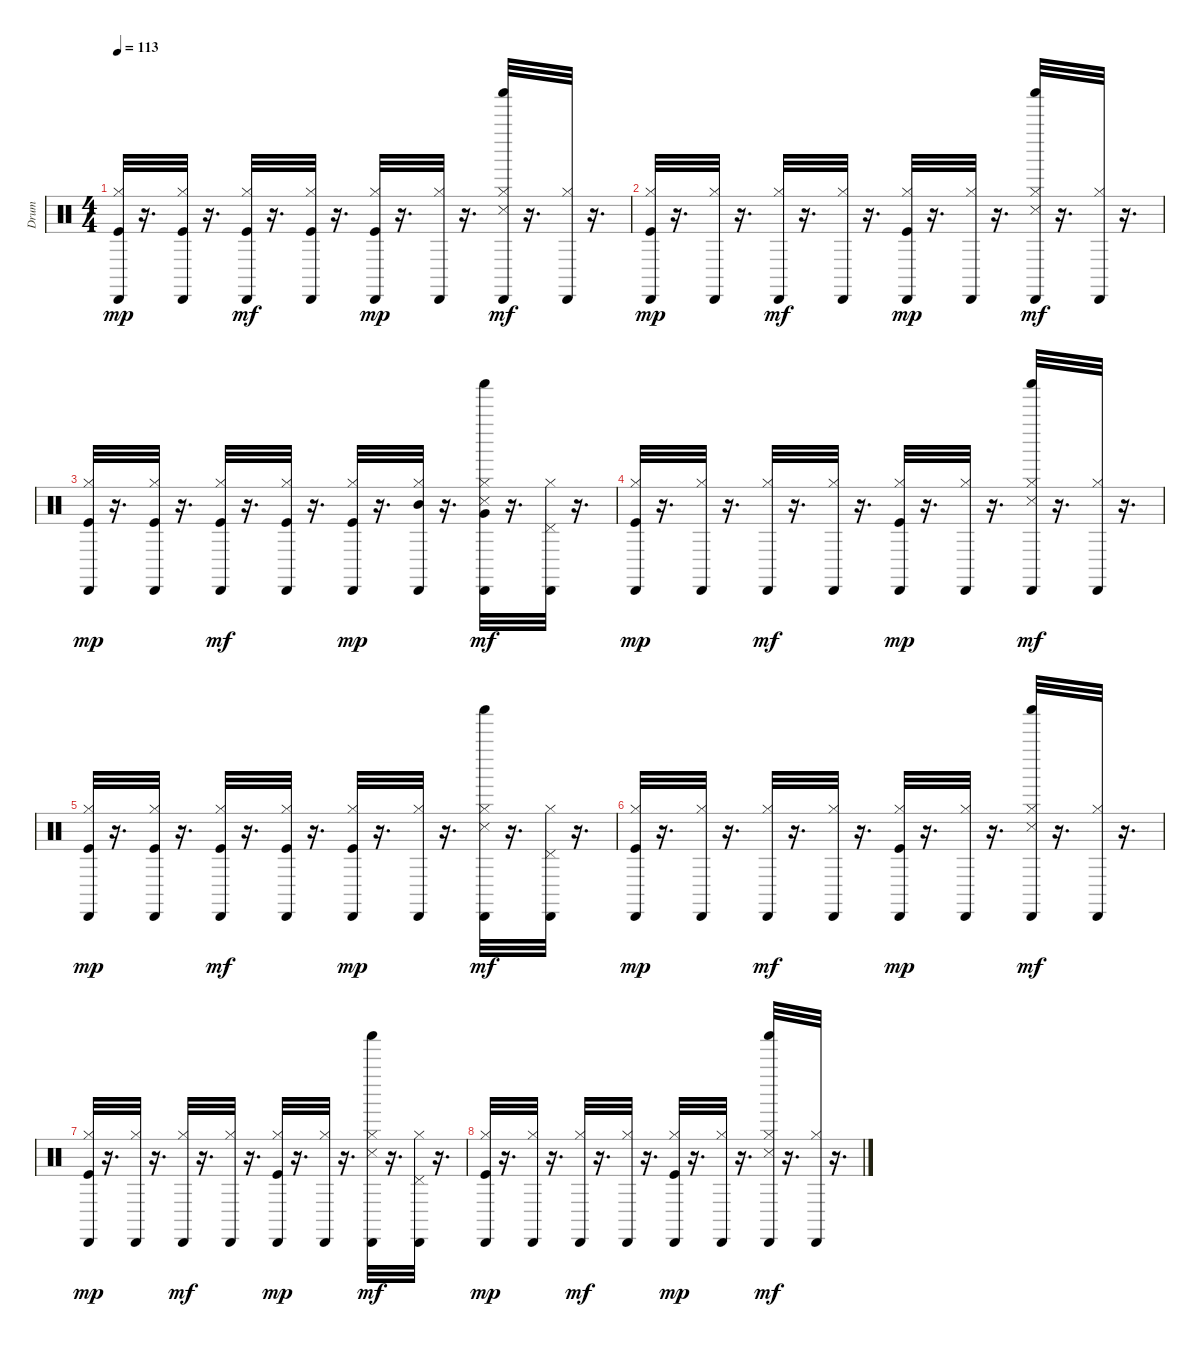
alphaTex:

\track ("Drum" "Drum") {instrument percussion}
\staff {score}
\articulation defaults
\ts (4 4)
\tempo 113
\clef neutral
\ks c
("Hi-Hat (closed)" "Kick (hit)" "Cabasa (hit)").32{dy mp} r.16{d} ("Hi-Hat (closed)" "Kick (hit)" "Cabasa (hit)").32 r.16{d} ("Hi-Hat (closed)" "Kick (hit)" "Cabasa (hit)").32{dy mf} r.16{d} ("Hi-Hat (closed)" "Kick (hit)" "Cabasa (hit)").32 r.16{d} ("Hi-Hat (closed)" "Kick (hit)" "Cabasa (hit)").32{dy mp} r.16{d} ("Hi-Hat (closed)" "Cabasa (hit)").32 r.16{d} ("Hi-Hat (closed)" "Shaker (hit)" "Snare (side stick) 3" "Cabasa (hit)").32{dy mf} r.16{d} ("Hi-Hat (closed)" "Cabasa (hit)").32 r.16{d} |
("Hi-Hat (closed)" "Kick (hit)" "Cabasa (hit)").32{dy mp} r.16{d} ("Hi-Hat (closed)" "Cabasa (hit)").32 r.16{d} ("Hi-Hat (closed)" "Cabasa (hit)").32{dy mf} r.16{d} ("Hi-Hat (closed)" "Cabasa (hit)").32 r.16{d} ("Hi-Hat (closed)" "Kick (hit)" "Cabasa (hit)").32{dy mp} r.16{d} ("Hi-Hat (closed)" "Cabasa (hit)").32 r.16{d} ("Hi-Hat (closed)" "Shaker (hit)" "Snare (side stick) 3" "Cabasa (hit)").32{dy mf} r.16{d} ("Hi-Hat (closed)" "Cabasa (hit)").32 r.16{d} |
("Hi-Hat (closed)" "Kick (hit)" "Cabasa (hit)").32{dy mp} r.16{d} ("Hi-Hat (closed)" "Kick (hit)" "Cabasa (hit)").32 r.16{d} ("Hi-Hat (closed)" "Kick (hit)" "Cabasa (hit)").32{dy mf} r.16{d} ("Hi-Hat (closed)" "Kick (hit)" "Cabasa (hit)").32 r.16{d} ("Hi-Hat (closed)" "Kick (hit)" "Cabasa (hit)").32{dy mp} r.16{d} ("Hi-Hat (closed)" "Mid Tom (hit)" "Cabasa (hit)").32 r.16{d} ("Hi-Hat (closed)" "Very Low Tom (hit)" "Shaker (hit)" "Snare (side stick) 3" "Cabasa (hit)").32{dy mf} r.16{d} ("Hi-Hat (closed)" "Pedal Hi-Hat (hit)" "Cabasa (hit)").32 r.16{d} |
("Hi-Hat (closed)" "Kick (hit)" "Cabasa (hit)").32{dy mp} r.16{d} ("Hi-Hat (closed)" "Cabasa (hit)").32 r.16{d} ("Hi-Hat (closed)" "Cabasa (hit)").32{dy mf} r.16{d} ("Hi-Hat (closed)" "Cabasa (hit)").32 r.16{d} ("Hi-Hat (closed)" "Kick (hit)" "Cabasa (hit)").32{dy mp} r.16{d} ("Hi-Hat (closed)" "Cabasa (hit)").32 r.16{d} ("Hi-Hat (closed)" "Shaker (hit)" "Snare (side stick) 3" "Cabasa (hit)").32{dy mf} r.16{d} ("Hi-Hat (closed)" "Cabasa (hit)").32 r.16{d} |
("Hi-Hat (closed)" "Kick (hit)" "Cabasa (hit)").32{dy mp} r.16{d} ("Hi-Hat (closed)" "Kick (hit)" "Cabasa (hit)").32 r.16{d} ("Hi-Hat (closed)" "Kick (hit)" "Cabasa (hit)").32{dy mf} r.16{d} ("Hi-Hat (closed)" "Kick (hit)" "Cabasa (hit)").32 r.16{d} ("Hi-Hat (closed)" "Kick (hit)" "Cabasa (hit)").32{dy mp} r.16{d} ("Hi-Hat (closed)" "Cabasa (hit)").32 r.16{d} ("Hi-Hat (closed)" "Shaker (hit)" "Snare (side stick) 3" "Cabasa (hit)").32{dy mf} r.16{d} ("Hi-Hat (closed)" "Pedal Hi-Hat (hit)" "Cabasa (hit)").32 r.16{d} |
("Hi-Hat (closed)" "Kick (hit)" "Cabasa (hit)").32{dy mp} r.16{d} ("Hi-Hat (closed)" "Cabasa (hit)").32 r.16{d} ("Hi-Hat (closed)" "Cabasa (hit)").32{dy mf} r.16{d} ("Hi-Hat (closed)" "Cabasa (hit)").32 r.16{d} ("Hi-Hat (closed)" "Kick (hit)" "Cabasa (hit)").32{dy mp} r.16{d} ("Hi-Hat (closed)" "Cabasa (hit)").32 r.16{d} ("Hi-Hat (closed)" "Shaker (hit)" "Snare (side stick) 3" "Cabasa (hit)").32{dy mf} r.16{d} ("Hi-Hat (closed)" "Cabasa (hit)").32 r.16{d} |
("Hi-Hat (closed)" "Kick (hit)" "Cabasa (hit)").32{dy mp} r.16{d} ("Hi-Hat (closed)" "Cabasa (hit)").32 r.16{d} ("Hi-Hat (closed)" "Cabasa (hit)").32{dy mf} r.16{d} ("Hi-Hat (closed)" "Cabasa (hit)").32 r.16{d} ("Hi-Hat (closed)" "Kick (hit)" "Cabasa (hit)").32{dy mp} r.16{d} ("Hi-Hat (closed)" "Cabasa (hit)").32 r.16{d} ("Hi-Hat (closed)" "Shaker (hit)" "Snare (side stick) 3" "Cabasa (hit)").32{dy mf} r.16{d} ("Hi-Hat (closed)" "Pedal Hi-Hat (hit)" "Cabasa (hit)").32 r.16{d} |
("Hi-Hat (closed)" "Kick (hit)" "Cabasa (hit)").32{dy mp} r.16{d} ("Hi-Hat (closed)" "Cabasa (hit)").32 r.16{d} ("Hi-Hat (closed)" "Cabasa (hit)").32{dy mf} r.16{d} ("Hi-Hat (closed)" "Cabasa (hit)").32 r.16{d} ("Hi-Hat (closed)" "Kick (hit)" "Cabasa (hit)").32{dy mp} r.16{d} ("Hi-Hat (closed)" "Cabasa (hit)").32 r.16{d} ("Hi-Hat (closed)" "Shaker (hit)" "Snare (side stick) 3" "Cabasa (hit)").32{dy mf} r.16{d} ("Hi-Hat (closed)" "Cabasa (hit)").32 r.16{d}
